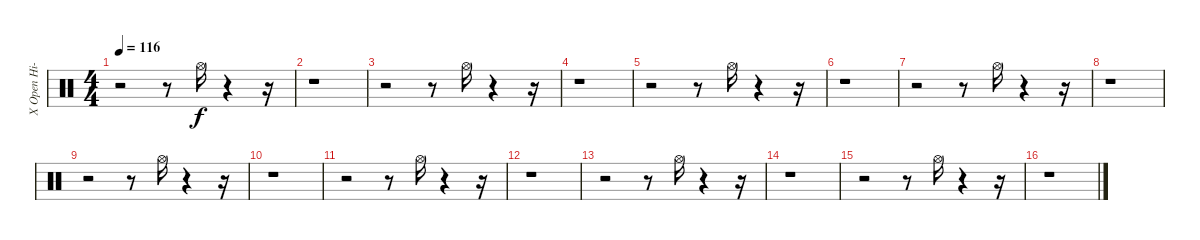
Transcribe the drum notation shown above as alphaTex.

\track ("X Open Hi-Hat       " "X Open Hi-") {instrument percussion}
\staff {score}
\articulation defaults
\ts (4 4)
\tempo 116
\clef neutral
\ks c
r.2{dy f} r.8 "Hi-Hat (open)".16 r.4 r.16 |
r.1 |
r.2 r.8 "Hi-Hat (open)".16 r.4 r.16 |
r.1 |
r.2 r.8 "Hi-Hat (open)".16 r.4 r.16 |
r.1 |
r.2 r.8 "Hi-Hat (open)".16 r.4 r.16 |
r.1 |
r.2 r.8 "Hi-Hat (open)".16 r.4 r.16 |
r.1 |
r.2 r.8 "Hi-Hat (open)".16 r.4 r.16 |
r.1 |
r.2 r.8 "Hi-Hat (open)".16 r.4 r.16 |
r.1 |
r.2 r.8 "Hi-Hat (open)".16 r.4 r.16 |
r.1
